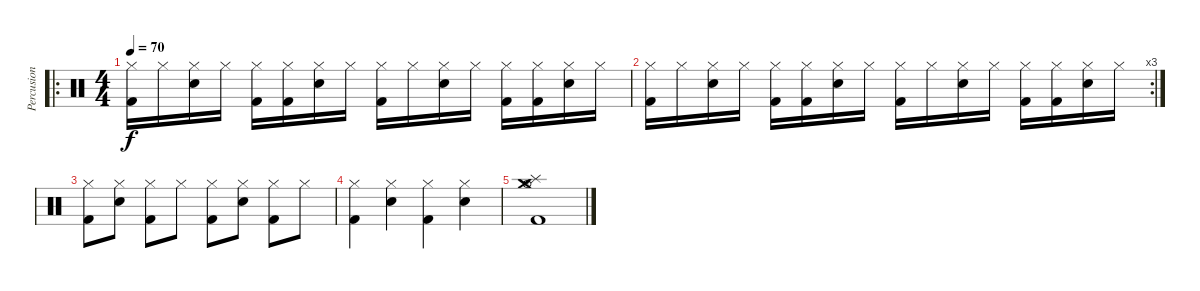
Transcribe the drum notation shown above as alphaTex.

\track ("Percusion" "Percusion") {instrument percussion}
\staff {score}
\articulation defaults
\ro
\ts (4 4)
\tempo 70
\clef neutral
\ks c
("Hi-Hat (closed)" "Kick (hit) 2").16{dy f} "Hi-Hat (closed)".16 ("Hi-Hat (closed)" "Snare (hit) 2").16 "Hi-Hat (closed)".16 ("Hi-Hat (closed)" "Kick (hit) 2").16 ("Hi-Hat (closed)" "Kick (hit) 2").16 ("Hi-Hat (closed)" "Snare (hit) 2").16 "Hi-Hat (closed)".16 ("Hi-Hat (closed)" "Kick (hit) 2").16 "Hi-Hat (closed)".16 ("Hi-Hat (closed)" "Snare (hit) 2").16 "Hi-Hat (closed)".16 ("Hi-Hat (closed)" "Kick (hit) 2").16 ("Hi-Hat (closed)" "Kick (hit) 2").16 ("Hi-Hat (closed)" "Snare (hit) 2").16 "Hi-Hat (closed)".16 |
\rc 3
("Hi-Hat (closed)" "Kick (hit) 2").16 "Hi-Hat (closed)".16 ("Hi-Hat (closed)" "Snare (hit) 2").16 "Hi-Hat (closed)".16 ("Hi-Hat (closed)" "Kick (hit) 2").16 ("Hi-Hat (closed)" "Kick (hit) 2").16 ("Hi-Hat (closed)" "Snare (hit) 2").16 "Hi-Hat (closed)".16 ("Hi-Hat (closed)" "Kick (hit) 2").16 "Hi-Hat (closed)".16 ("Hi-Hat (closed)" "Snare (hit) 2").16 "Hi-Hat (closed)".16 ("Hi-Hat (closed)" "Kick (hit) 2").16 ("Hi-Hat (closed)" "Kick (hit) 2").16 ("Hi-Hat (closed)" "Snare (hit) 2").16 "Hi-Hat (closed)".16 |
("Hi-Hat (closed)" "Kick (hit) 2").8 ("Hi-Hat (closed)" "Snare (hit) 2").8 ("Hi-Hat (closed)" "Kick (hit) 2").8 "Hi-Hat (closed)".8 ("Hi-Hat (closed)" "Kick (hit) 2").8 ("Hi-Hat (closed)" "Snare (hit) 2").8 ("Hi-Hat (closed)" "Kick (hit) 2").8 "Hi-Hat (closed)".8 |
("Hi-Hat (closed)" "Kick (hit) 2").4 ("Hi-Hat (closed)" "Snare (hit) 2").4 ("Hi-Hat (closed)" "Kick (hit) 2").4 ("Hi-Hat (closed)" "Snare (hit) 2").4 |
("Splash (hit)" "Crash medium (hit)" "Hi-Hat (open)" "Kick (hit) 2").1
